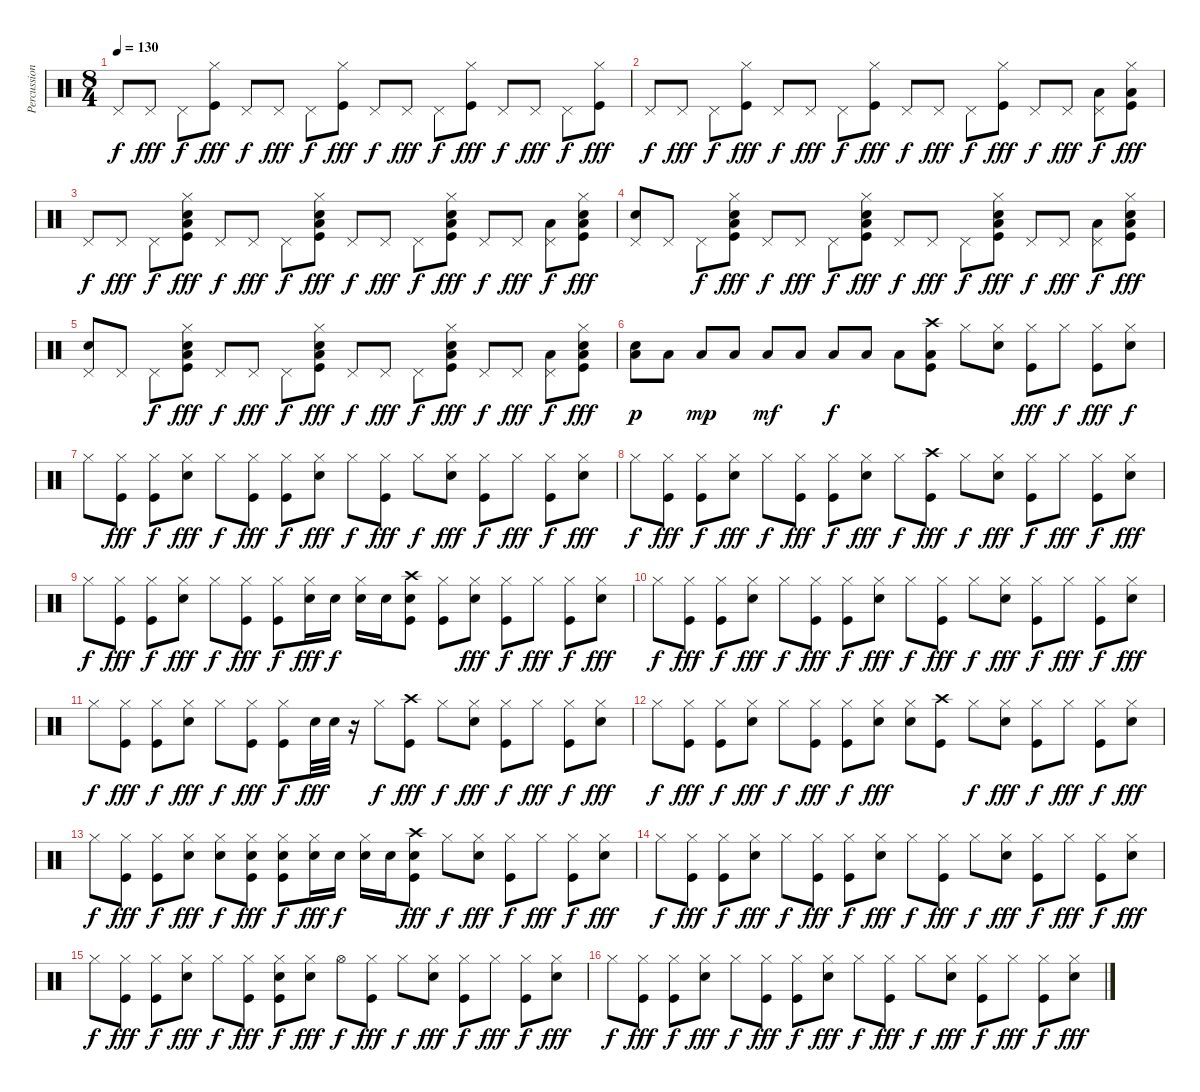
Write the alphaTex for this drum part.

\track ("Percussion" "Percussion") {instrument percussion}
\staff {score}
\articulation defaults
\ts (8 4)
\tempo 130
\clef neutral
\ks c "Pedal Hi-Hat (hit)".8{dy f} "Pedal Hi-Hat (hit)".8{dy fff} "Pedal Hi-Hat (hit)".8{dy f}
("Hi-Hat (closed)" "Kick (hit)").8{dy fff} "Pedal Hi-Hat (hit)".8{dy f} "Pedal Hi-Hat (hit)".8{dy fff} "Pedal Hi-Hat (hit)".8{dy f} ("Hi-Hat (closed)" "Kick (hit)").8{dy fff} "Pedal Hi-Hat (hit)".8{dy f} "Pedal Hi-Hat (hit)".8{dy fff} "Pedal Hi-Hat (hit)".8{dy f} ("Hi-Hat (closed)" "Kick (hit)").8{dy fff} "Pedal Hi-Hat (hit)".8{dy f} "Pedal Hi-Hat (hit)".8{dy fff} "Pedal Hi-Hat (hit)".8{dy f} ("Hi-Hat (closed)" "Kick (hit)").8{dy fff} |
"Pedal Hi-Hat (hit)".8{dy f} "Pedal Hi-Hat (hit)".8{dy fff} "Pedal Hi-Hat (hit)".8{dy f} ("Hi-Hat (closed)" "Kick (hit)").8{dy fff} "Pedal Hi-Hat (hit)".8{dy f} "Pedal Hi-Hat (hit)".8{dy fff} "Pedal Hi-Hat (hit)".8{dy f} ("Hi-Hat (closed)" "Kick (hit)").8{dy fff} "Pedal Hi-Hat (hit)".8{dy f} "Pedal Hi-Hat (hit)".8{dy fff} "Pedal Hi-Hat (hit)".8{dy f} ("Hi-Hat (closed)" "Kick (hit)").8{dy fff} "Pedal Hi-Hat (hit)".8{dy f} "Pedal Hi-Hat (hit)".8{dy fff} ("Pedal Hi-Hat (hit)" "Low Tom (hit)").8{dy f} ("Hi-Hat (closed)" "Low Floor Tom (hit)" "Kick (hit)").8{dy fff} |
"Pedal Hi-Hat (hit)".8{dy f} "Pedal Hi-Hat (hit)".8{dy fff} "Pedal Hi-Hat (hit)".8{dy f} ("Hi-Hat (closed)" "Hand Clap (hit)" "Low Floor Tom (hit)" "Kick (hit)").8{dy fff} "Pedal Hi-Hat (hit)".8{dy f} "Pedal Hi-Hat (hit)".8{dy fff} "Pedal Hi-Hat (hit)".8{dy f} ("Hi-Hat (closed)" "Hand Clap (hit)" "Low Floor Tom (hit)" "Kick (hit)").8{dy fff} "Pedal Hi-Hat (hit)".8{dy f} "Pedal Hi-Hat (hit)".8{dy fff} "Pedal Hi-Hat (hit)".8{dy f} ("Hi-Hat (closed)" "Hand Clap (hit)" "Low Floor Tom (hit)" "Kick (hit)").8{dy fff} "Pedal Hi-Hat (hit)".8{dy f} "Pedal Hi-Hat (hit)".8{dy fff} ("Pedal Hi-Hat (hit)" "Low Tom (hit)").8{dy f} ("Hi-Hat (closed)" "Hand Clap (hit)" "Low Floor Tom (hit)" "Kick (hit)").8{dy fff} |
("Pedal Hi-Hat (hit)" "Hand Clap (hit)").8 "Pedal Hi-Hat (hit)".8 "Pedal Hi-Hat (hit)".8{dy f} ("Hi-Hat (closed)" "Hand Clap (hit)" "Low Floor Tom (hit)" "Kick (hit)").8{dy fff} "Pedal Hi-Hat (hit)".8{dy f} "Pedal Hi-Hat (hit)".8{dy fff} "Pedal Hi-Hat (hit)".8{dy f} ("Hi-Hat (closed)" "Hand Clap (hit)" "Low Floor Tom (hit)" "Kick (hit)").8{dy fff} "Pedal Hi-Hat (hit)".8{dy f} "Pedal Hi-Hat (hit)".8{dy fff} "Pedal Hi-Hat (hit)".8{dy f} ("Hi-Hat (closed)" "Hand Clap (hit)" "Low Floor Tom (hit)" "Kick (hit)").8{dy fff} "Pedal Hi-Hat (hit)".8{dy f} "Pedal Hi-Hat (hit)".8{dy fff} ("Pedal Hi-Hat (hit)" "Low Tom (hit)").8{dy f} ("Hi-Hat (closed)" "Hand Clap (hit)" "Low Floor Tom (hit)" "Kick (hit)").8{dy fff} |
("Pedal Hi-Hat (hit)" "Hand Clap (hit)").8 "Pedal Hi-Hat (hit)".8 "Pedal Hi-Hat (hit)".8{dy f} ("Hi-Hat (closed)" "Hand Clap (hit)" "Low Floor Tom (hit)" "Kick (hit)").8{dy fff} "Pedal Hi-Hat (hit)".8{dy f} "Pedal Hi-Hat (hit)".8{dy fff} "Pedal Hi-Hat (hit)".8{dy f} ("Hi-Hat (closed)" "Hand Clap (hit)" "Low Floor Tom (hit)" "Kick (hit)").8{dy fff} "Pedal Hi-Hat (hit)".8{dy f} "Pedal Hi-Hat (hit)".8{dy fff} "Pedal Hi-Hat (hit)".8{dy f} ("Hi-Hat (closed)" "Hand Clap (hit)" "Low Floor Tom (hit)" "Kick (hit)").8{dy fff} "Pedal Hi-Hat (hit)".8{dy f} "Pedal Hi-Hat (hit)".8{dy fff} ("Pedal Hi-Hat (hit)" "Low Tom (hit)").8{dy f} ("Hi-Hat (closed)" "Hand Clap (hit)" "Low Floor Tom (hit)" "Kick (hit)").8{dy fff} |
("Hand Clap (hit)" "Low Floor Tom (hit)").8{dy p} "Low Floor Tom (hit)".8 "Low Floor Tom (hit)".8{dy mp} "Low Floor Tom (hit)".8 "Low Floor Tom (hit)".8{dy mf} "Low Floor Tom (hit)".8 "Low Floor Tom (hit)".8{dy f} "Low Floor Tom (hit)".8 "Low Floor Tom (hit)".8 ("Crash high (hit)" "Low Floor Tom (hit)" "Kick (hit)").8 "Hi-Hat (closed)".8 ("Hi-Hat (closed)" "Electric Snare (hit)").8 ("Hi-Hat (closed)" "Kick (hit)").8{dy fff} "Hi-Hat (closed)".8{dy f} ("Hi-Hat (closed)" "Kick (hit)").8{dy fff} ("Hi-Hat (closed)" "Electric Snare (hit)").8{dy f} |
"Hi-Hat (closed)".8 ("Hi-Hat (closed)" "Kick (hit)").8{dy fff} ("Hi-Hat (closed)" "Kick (hit)").8{dy f} ("Hi-Hat (closed)" "Electric Snare (hit)").8{dy fff} "Hi-Hat (closed)".8{dy f} ("Hi-Hat (closed)" "Kick (hit)").8{dy fff} ("Hi-Hat (closed)" "Kick (hit)").8{dy f} ("Hi-Hat (closed)" "Electric Snare (hit)").8{dy fff} "Hi-Hat (closed)".8{dy f} ("Hi-Hat (closed)" "Kick (hit)").8{dy fff} "Hi-Hat (closed)".8{dy f} ("Hi-Hat (closed)" "Electric Snare (hit)").8{dy fff} ("Hi-Hat (closed)" "Kick (hit)").8{dy f} "Hi-Hat (closed)".8{dy fff} ("Hi-Hat (closed)" "Kick (hit)").8{dy f} ("Hi-Hat (closed)" "Electric Snare (hit)").8{dy fff} |
"Hi-Hat (closed)".8{dy f} ("Hi-Hat (closed)" "Kick (hit)").8{dy fff} ("Hi-Hat (closed)" "Kick (hit)").8{dy f} ("Hi-Hat (closed)" "Electric Snare (hit)").8{dy fff} "Hi-Hat (closed)".8{dy f} ("Hi-Hat (closed)" "Kick (hit)").8{dy fff} ("Hi-Hat (closed)" "Kick (hit)").8{dy f} ("Hi-Hat (closed)" "Electric Snare (hit)").8{dy fff} "Hi-Hat (closed)".8{dy f} ("Crash high (hit)" "Kick (hit)").8{dy fff} "Hi-Hat (closed)".8{dy f} ("Hi-Hat (closed)" "Electric Snare (hit)").8{dy fff} ("Hi-Hat (closed)" "Kick (hit)").8{dy f} "Hi-Hat (closed)".8{dy fff} ("Hi-Hat (closed)" "Kick (hit)").8{dy f} ("Hi-Hat (closed)" "Electric Snare (hit)").8{dy fff} |
"Hi-Hat (closed)".8{dy f} ("Hi-Hat (closed)" "Kick (hit)").8{dy fff} ("Hi-Hat (closed)" "Kick (hit)").8{dy f} ("Hi-Hat (closed)" "Electric Snare (hit)").8{dy fff} "Hi-Hat (closed)".8{dy f} ("Hi-Hat (closed)" "Kick (hit)").8{dy fff} ("Hi-Hat (closed)" "Kick (hit)").8{dy f} ("Hi-Hat (closed)" "Electric Snare (hit)").16{dy fff} "Electric Snare (hit)".16{dy f} ("Hi-Hat (closed)" "Electric Snare (hit)").16 "Electric Snare (hit)".16 ("Crash high (hit)" "Electric Snare (hit)" "Kick (hit)").8 ("Hi-Hat (closed)" "Kick (hit)").8 ("Hi-Hat (closed)" "Electric Snare (hit)").8{dy fff} ("Hi-Hat (closed)" "Kick (hit)").8{dy f} "Hi-Hat (closed)".8{dy fff} ("Hi-Hat (closed)" "Kick (hit)").8{dy f} ("Hi-Hat (closed)" "Electric Snare (hit)").8{dy fff} |
"Hi-Hat (closed)".8{dy f} ("Hi-Hat (closed)" "Kick (hit)").8{dy fff} ("Hi-Hat (closed)" "Kick (hit)").8{dy f} ("Hi-Hat (closed)" "Electric Snare (hit)").8{dy fff} "Hi-Hat (closed)".8{dy f} ("Hi-Hat (closed)" "Kick (hit)").8{dy fff} ("Hi-Hat (closed)" "Kick (hit)").8{dy f} ("Hi-Hat (closed)" "Electric Snare (hit)").8{dy fff} "Hi-Hat (closed)".8{dy f} ("Hi-Hat (closed)" "Kick (hit)").8{dy fff} "Hi-Hat (closed)".8{dy f} ("Hi-Hat (closed)" "Electric Snare (hit)").8{dy fff} ("Hi-Hat (closed)" "Kick (hit)").8{dy f} "Hi-Hat (closed)".8{dy fff} ("Hi-Hat (closed)" "Kick (hit)").8{dy f} ("Hi-Hat (closed)" "Electric Snare (hit)").8{dy fff} |
"Hi-Hat (closed)".8{dy f} ("Hi-Hat (closed)" "Kick (hit)").8{dy fff} ("Hi-Hat (closed)" "Kick (hit)").8{dy f} ("Hi-Hat (closed)" "Electric Snare (hit)").8{dy fff} "Hi-Hat (closed)".8{dy f} ("Hi-Hat (closed)" "Kick (hit)").8{dy fff} ("Hi-Hat (closed)" "Kick (hit)").8{dy f} "Electric Snare (hit)".32{dy fff} "Electric Snare (hit)".32 r.16 "Hi-Hat (closed)".8{dy f} ("Crash high (hit)" "Kick (hit)").8{dy fff} "Hi-Hat (closed)".8{dy f} ("Hi-Hat (closed)" "Electric Snare (hit)").8{dy fff} ("Hi-Hat (closed)" "Kick (hit)").8{dy f} "Hi-Hat (closed)".8{dy fff} ("Hi-Hat (closed)" "Kick (hit)").8{dy f} ("Hi-Hat (closed)" "Electric Snare (hit)").8{dy fff} |
"Hi-Hat (closed)".8{dy f} ("Hi-Hat (closed)" "Kick (hit)").8{dy fff} ("Hi-Hat (closed)" "Kick (hit)").8{dy f} ("Hi-Hat (closed)" "Electric Snare (hit)").8{dy fff} "Hi-Hat (closed)".8{dy f} ("Hi-Hat (closed)" "Kick (hit)").8{dy fff} ("Hi-Hat (closed)" "Kick (hit)").8{dy f} ("Hi-Hat (closed)" "Electric Snare (hit)").8{dy fff} ("Hi-Hat (closed)" "Electric Snare (hit)").8 ("Crash high (hit)" "Kick (hit)").8 "Hi-Hat (closed)".8{dy f} ("Hi-Hat (closed)" "Electric Snare (hit)").8{dy fff} ("Hi-Hat (closed)" "Kick (hit)").8{dy f} "Hi-Hat (closed)".8{dy fff} ("Hi-Hat (closed)" "Kick (hit)").8{dy f} ("Hi-Hat (closed)" "Electric Snare (hit)").8{dy fff} |
"Hi-Hat (closed)".8{dy f} ("Hi-Hat (closed)" "Kick (hit)").8{dy fff} ("Hi-Hat (closed)" "Kick (hit)").8{dy f} ("Hi-Hat (closed)" "Electric Snare (hit)").8{dy fff} ("Hi-Hat (closed)" "Electric Snare (hit)").8{dy f} ("Hi-Hat (closed)" "Electric Snare (hit)" "Kick (hit)").8{dy fff} ("Hi-Hat (closed)" "Electric Snare (hit)" "Kick (hit)").8{dy f} ("Hi-Hat (closed)" "Electric Snare (hit)").16{dy fff} "Electric Snare (hit)".16{dy f} ("Hi-Hat (closed)" "Electric Snare (hit)").16 "Electric Snare (hit)".16 ("Crash high (hit)" "Electric Snare (hit)" "Kick (hit)").8{dy fff} "Hi-Hat (closed)".8{dy f} ("Hi-Hat (closed)" "Electric Snare (hit)").8{dy fff} ("Hi-Hat (closed)" "Kick (hit)").8{dy f} "Hi-Hat (closed)".8{dy fff} ("Hi-Hat (closed)" "Kick (hit)").8{dy f} ("Hi-Hat (closed)" "Electric Snare (hit)").8{dy fff} |
"Hi-Hat (closed)".8{dy f} ("Hi-Hat (closed)" "Kick (hit)").8{dy fff} ("Hi-Hat (closed)" "Kick (hit)").8{dy f} ("Hi-Hat (closed)" "Electric Snare (hit)").8{dy fff} "Hi-Hat (closed)".8{dy f} ("Hi-Hat (closed)" "Kick (hit)").8{dy fff} ("Hi-Hat (closed)" "Kick (hit)").8{dy f} ("Hi-Hat (closed)" "Electric Snare (hit)").8{dy fff} "Hi-Hat (closed)".8{dy f} ("Hi-Hat (closed)" "Kick (hit)").8{dy fff} "Hi-Hat (closed)".8{dy f} ("Hi-Hat (closed)" "Electric Snare (hit)").8{dy fff} ("Hi-Hat (closed)" "Kick (hit)").8{dy f} "Hi-Hat (closed)".8{dy fff} ("Hi-Hat (closed)" "Kick (hit)").8{dy f} ("Hi-Hat (closed)" "Electric Snare (hit)").8{dy fff} |
"Hi-Hat (closed)".8{dy f} ("Hi-Hat (closed)" "Kick (hit)").8{dy fff} ("Hi-Hat (closed)" "Kick (hit)").8{dy f} ("Hi-Hat (closed)" "Electric Snare (hit)").8{dy fff} "Hi-Hat (closed)".8{dy f} ("Hi-Hat (closed)" "Kick (hit)").8{dy fff} ("Hi-Hat (closed)" "Electric Snare (hit)" "Kick (hit)").8{dy f} ("Hi-Hat (closed)" "Electric Snare (hit)").8{dy fff} "Hi-Hat (open)".8{dy f} ("Hi-Hat (closed)" "Kick (hit)").8{dy fff} "Hi-Hat (closed)".8{dy f} ("Hi-Hat (closed)" "Electric Snare (hit)").8{dy fff} ("Hi-Hat (closed)" "Kick (hit)").8{dy f} "Hi-Hat (closed)".8{dy fff} ("Hi-Hat (closed)" "Kick (hit)").8{dy f} ("Hi-Hat (closed)" "Electric Snare (hit)").8{dy fff} |
"Hi-Hat (closed)".8{dy f} ("Hi-Hat (closed)" "Kick (hit)").8{dy fff} ("Hi-Hat (closed)" "Kick (hit)").8{dy f} ("Hi-Hat (closed)" "Electric Snare (hit)").8{dy fff} "Hi-Hat (closed)".8{dy f} ("Hi-Hat (closed)" "Kick (hit)").8{dy fff} ("Hi-Hat (closed)" "Kick (hit)").8{dy f} ("Hi-Hat (closed)" "Electric Snare (hit)").8{dy fff} "Hi-Hat (closed)".8{dy f} ("Hi-Hat (closed)" "Kick (hit)").8{dy fff} "Hi-Hat (closed)".8{dy f} ("Hi-Hat (closed)" "Electric Snare (hit)").8{dy fff} ("Hi-Hat (closed)" "Kick (hit)").8{dy f} "Hi-Hat (closed)".8{dy fff} ("Hi-Hat (closed)" "Kick (hit)").8{dy f} ("Hi-Hat (closed)" "Electric Snare (hit)").8{dy fff}
